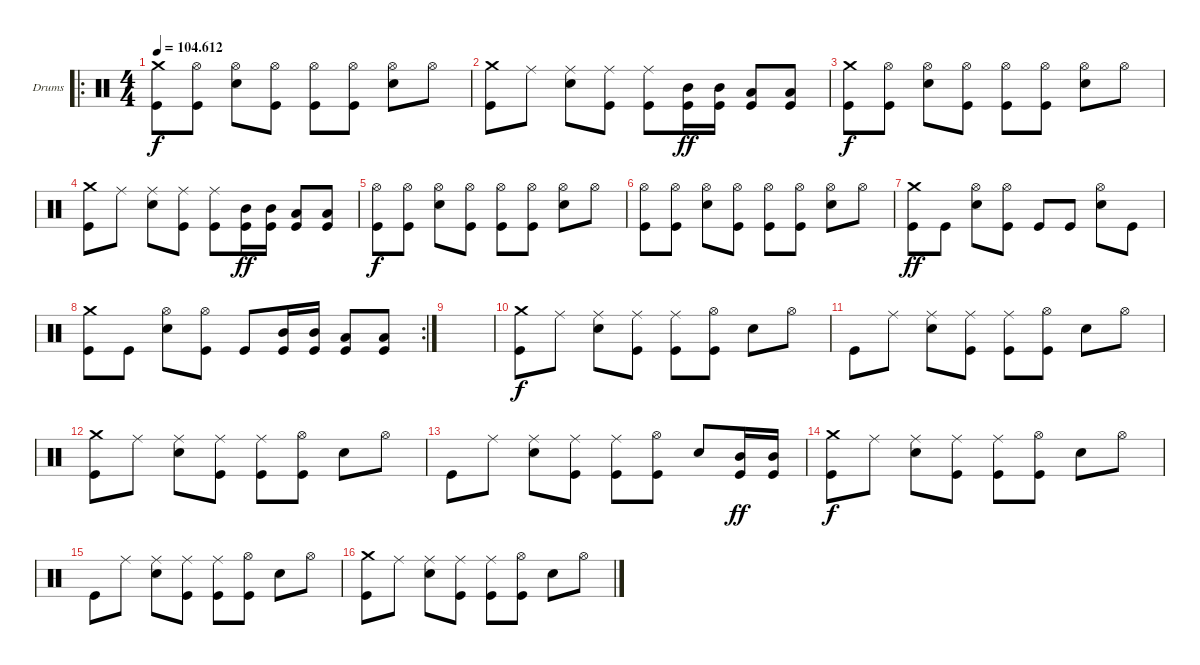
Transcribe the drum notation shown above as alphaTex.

\defaultSystemsLayout 4
\bracketExtendMode groupsimilarinstruments
\firstSystemTrackNameOrientation horizontal
\otherSystemsTrackNameOrientation horizontal
\track ("Drumkit" "Drums") {instrument percussion}
\staff {score}
\articulation defaults
\ro
\ts (4 4)
\tempo
104.612
\accidentals auto
\clef neutral
\ottava regular
\simile none
\ks c
("Kick (hit)" "Crash medium (hit)").8{dy f} ("Kick (hit)" "Hi-Hat (open)").8 ("Snare (hit) 2" "Hi-Hat (open)").8 ("Kick (hit)" "Hi-Hat (open)").8 ("Kick (hit)" "Hi-Hat (open)").8 ("Kick (hit)" "Hi-Hat (open)").8 ("Snare (hit) 2" "Hi-Hat (open)").8 "Hi-Hat (open)".8 |
("Kick (hit)" "Crash medium (hit)").8 "Ride (middle)".8 ("Snare (hit) 2" "Ride (middle)").8 ("Kick (hit)" "Ride (middle)").8 ("Kick (hit)" "Ride (middle)").8 ("Mid Tom (hit)" "Kick (hit)").16{dy ff} ("Mid Tom (hit)" "Kick (hit)").16 ("Low Tom (hit)" "Kick (hit)").8 ("Low Tom (hit)" "Kick (hit)").8 |
("Kick (hit)" "Crash medium (hit)").8{dy f} ("Kick (hit)" "Hi-Hat (open)").8 ("Snare (hit) 2" "Hi-Hat (open)").8 ("Kick (hit)" "Hi-Hat (open)").8 ("Kick (hit)" "Hi-Hat (open)").8 ("Kick (hit)" "Hi-Hat (open)").8 ("Snare (hit) 2" "Hi-Hat (open)").8 "Hi-Hat (open)".8 |
("Kick (hit)" "Crash medium (hit)").8 "Ride (middle)".8 ("Snare (hit) 2" "Ride (middle)").8 ("Kick (hit)" "Ride (middle)").8 ("Kick (hit)" "Ride (middle)").8 ("Mid Tom (hit)" "Kick (hit)").16{dy ff} ("Mid Tom (hit)" "Kick (hit)").16 ("Low Tom (hit)" "Kick (hit)").8 ("Low Tom (hit)" "Kick (hit)").8 |
("Kick (hit)" "Hi-Hat (open)").8{dy f} ("Kick (hit)" "Hi-Hat (open)").8 ("Snare (hit) 2" "Hi-Hat (open)").8 ("Kick (hit)" "Hi-Hat (open)").8 ("Kick (hit)" "Hi-Hat (open)").8 ("Kick (hit)" "Hi-Hat (open)").8 ("Snare (hit) 2" "Hi-Hat (open)").8 "Hi-Hat (open)".8 |
("Kick (hit)" "Hi-Hat (open)").8 ("Kick (hit)" "Hi-Hat (open)").8 ("Snare (hit) 2" "Hi-Hat (open)").8 ("Kick (hit)" "Hi-Hat (open)").8 ("Kick (hit)" "Hi-Hat (open)").8 ("Kick (hit)" "Hi-Hat (open)").8 ("Snare (hit) 2" "Hi-Hat (open)").8 "Hi-Hat (open)".8 |
("Kick (hit)" "Crash medium (hit)").8{dy ff} "Kick (hit)".8 ("Snare (hit) 2" "Hi-Hat (open)").8 ("Kick (hit)" "Hi-Hat (open)").8 "Kick (hit)".8 "Kick (hit)".8 ("Snare (hit) 2" "Hi-Hat (open)").8 "Kick (hit)".8 |
\rc 2
("Kick (hit)" "Crash medium (hit)").8 "Kick (hit)".8 ("Snare (hit) 2" "Hi-Hat (open)").8 ("Kick (hit)" "Hi-Hat (open)").8 "Kick (hit)".8 ("Mid Tom (hit)" "Kick (hit)").16 ("Mid Tom (hit)" "Kick (hit)").16 ("Low Tom (hit)" "Kick (hit)").8 ("Low Tom (hit)" "Kick (hit)").8 |
|
("Kick (hit)" "Crash medium (hit)").8{dy f} "Ride (middle)".8 ("Snare (hit) 2" "Ride (middle)").8 ("Kick (hit)" "Ride (middle)").8 ("Kick (hit)" "Ride (middle)").8 ("Kick (hit)" "Hi-Hat (open)").8 "Snare (hit) 2".8 "Hi-Hat (open)".8 |
"Kick (hit)".8 "Ride (middle)".8 ("Snare (hit) 2" "Ride (middle)").8 ("Kick (hit)" "Ride (middle)").8 ("Kick (hit)" "Ride (middle)").8 ("Kick (hit)" "Hi-Hat (open)").8 "Snare (hit) 2".8 "Hi-Hat (open)".8 |
("Kick (hit)" "Crash medium (hit)").8 "Ride (middle)".8 ("Snare (hit) 2" "Ride (middle)").8 ("Kick (hit)" "Ride (middle)").8 ("Kick (hit)" "Ride (middle)").8 ("Kick (hit)" "Hi-Hat (open)").8 "Snare (hit) 2".8 "Hi-Hat (open)".8 |
"Kick (hit)".8 "Ride (middle)".8 ("Snare (hit) 2" "Ride (middle)").8 ("Kick (hit)" "Ride (middle)").8 ("Kick (hit)" "Ride (middle)").8 ("Kick (hit)" "Hi-Hat (open)").8 "Snare (hit) 2".8 ("Mid Tom (hit)" "Kick (hit)").16{dy ff} ("Mid Tom (hit)" "Kick (hit)").16 |
("Kick (hit)" "Crash medium (hit)").8{dy f} "Ride (middle)".8 ("Snare (hit) 2" "Ride (middle)").8 ("Kick (hit)" "Ride (middle)").8 ("Kick (hit)" "Ride (middle)").8 ("Kick (hit)" "Hi-Hat (open)").8 "Snare (hit) 2".8 "Hi-Hat (open)".8 |
"Kick (hit)".8 "Ride (middle)".8 ("Snare (hit) 2" "Ride (middle)").8 ("Kick (hit)" "Ride (middle)").8 ("Kick (hit)" "Ride (middle)").8 ("Kick (hit)" "Hi-Hat (open)").8 "Snare (hit) 2".8 "Hi-Hat (open)".8 |
("Kick (hit)" "Crash medium (hit)").8 "Ride (middle)".8 ("Snare (hit) 2" "Ride (middle)").8 ("Kick (hit)" "Ride (middle)").8 ("Kick (hit)" "Ride (middle)").8 ("Kick (hit)" "Hi-Hat (open)").8 "Snare (hit) 2".8 "Hi-Hat (open)".8
